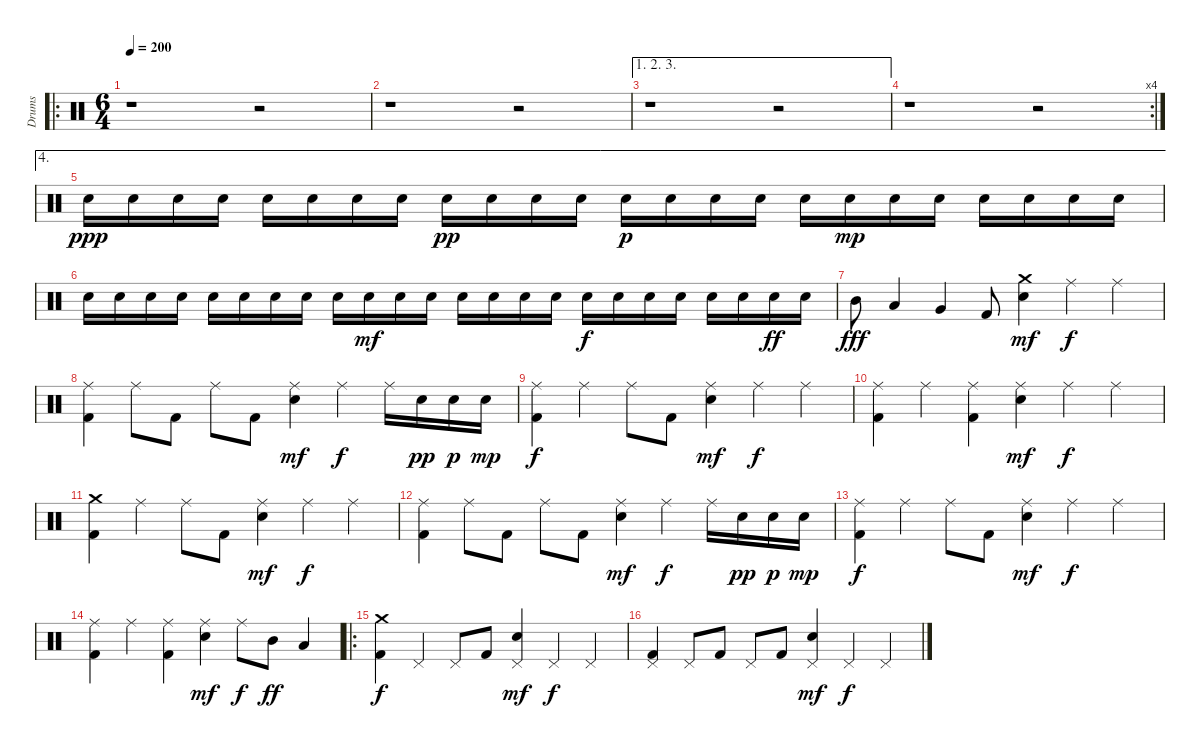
\track ("Drums" "Drums") {instrument percussion}
\staff {score}
\articulation defaults
\ro
\ts (6 4)
\tempo 200
\clef neutral
\ks c
r.1{dy ppp} r.2 |
r.1 r.2 |
\ae (1 2 3)
r.1 r.2 |
\rc 4
r.1 r.2 |
\ae 4 "Snare (hit) 2".16{volume 13} "Snare (hit) 2".16 "Snare (hit) 2".16 "Snare (hit) 2".16 "Snare (hit) 2".16 "Snare (hit) 2".16 "Snare (hit) 2".16 "Snare (hit) 2".16 "Snare (hit) 2".16{dy pp} "Snare (hit) 2".16 "Snare (hit) 2".16 "Snare (hit) 2".16 "Snare (hit) 2".16{dy p} "Snare (hit) 2".16 "Snare (hit) 2".16 "Snare (hit) 2".16 "Snare (hit) 2".16 "Snare (hit) 2".16{dy mp} "Snare (hit) 2".16 "Snare (hit) 2".16 "Snare (hit) 2".16 "Snare (hit) 2".16 "Snare (hit) 2".16 "Snare (hit) 2".16
|
"Snare (hit) 2".16 "Snare (hit) 2".16 "Snare (hit) 2".16 "Snare (hit) 2".16 "Snare (hit) 2".16 "Snare (hit) 2".16 "Snare (hit) 2".16 "Snare (hit) 2".16 "Snare (hit) 2".16 "Snare (hit) 2".16{dy mf} "Snare (hit) 2".16 "Snare (hit) 2".16 "Snare (hit) 2".16 "Snare (hit) 2".16 "Snare (hit) 2".16 "Snare (hit) 2".16 "Snare (hit) 2".16{dy f} "Snare (hit) 2".16 "Snare (hit) 2".16 "Snare (hit) 2".16 "Snare (hit) 2".16 "Snare (hit) 2".16 "Snare (hit) 2".16{dy ff} "Snare (hit) 2".16 |
"Mid Tom (hit)".8{dy fff volume 13} "Low Tom (hit)".4 "Very Low Tom (hit)".4 "Kick (hit) 2".8 ("Crash medium (hit)" "Snare (hit) 2").4{dy mf} "Ride (middle)".4{dy f} "Ride (middle)".4 |
("Ride (middle)" "Kick (hit) 2").4 "Ride (middle)".8 "Kick (hit) 2".8 "Ride (middle)".8 "Kick (hit) 2".8 ("Ride (middle)" "Snare (hit) 2").4{dy mf} "Ride (middle)".4{dy f} "Ride (middle)".16 "Snare (hit) 2".16{dy pp} "Snare (hit) 2".16{dy p} "Snare (hit) 2".16{dy mp} |
("Ride (middle)" "Kick (hit) 2").4{dy f} "Ride (middle)".4 "Ride (middle)".8 "Kick (hit) 2".8 ("Ride (middle)" "Snare (hit) 2").4{dy mf} "Ride (middle)".4{dy f} "Ride (middle)".4 |
("Ride (middle)" "Kick (hit) 2").4 "Ride (middle)".4 ("Ride (middle)" "Kick (hit) 2").4 ("Ride (middle)" "Snare (hit) 2").4{dy mf} "Ride (middle)".4{dy f} "Ride (middle)".4 |
("Crash medium (hit)" "Kick (hit) 2").4 "Ride (middle)".4 "Ride (middle)".8 "Kick (hit) 2".8 ("Ride (middle)" "Snare (hit) 2").4{dy mf} "Ride (middle)".4{dy f} "Ride (middle)".4 |
("Ride (middle)" "Kick (hit) 2").4 "Ride (middle)".8 "Kick (hit) 2".8 "Ride (middle)".8 "Kick (hit) 2".8 ("Ride (middle)" "Snare (hit) 2").4{dy mf} "Ride (middle)".4{dy f} "Ride (middle)".16 "Snare (hit) 2".16{dy pp} "Snare (hit) 2".16{dy p} "Snare (hit) 2".16{dy mp} |
("Ride (middle)" "Kick (hit) 2").4{dy f} "Ride (middle)".4 "Ride (middle)".8 "Kick (hit) 2".8 ("Ride (middle)" "Snare (hit) 2").4{dy mf} "Ride (middle)".4{dy f} "Ride (middle)".4 |
("Ride (middle)" "Kick (hit) 2").4 "Ride (middle)".4 ("Ride (middle)" "Kick (hit) 2").4 ("Ride (middle)" "Snare (hit) 2").4{dy mf} "Ride (middle)".8{dy f} "Mid Tom (hit)".8{dy ff} "Low Tom (hit)".4 |
\ro
("Crash medium (hit)" "Kick (hit) 2").4{dy f} "Pedal Hi-Hat (hit)".4 "Pedal Hi-Hat (hit)".8 "Kick (hit) 2".8 ("Pedal Hi-Hat (hit)" "Snare (hit) 2").4{dy mf} "Pedal Hi-Hat (hit)".4{dy f} "Pedal Hi-Hat (hit)".4 |
("Pedal Hi-Hat (hit)" "Kick (hit) 2").4 "Pedal Hi-Hat (hit)".8 "Kick (hit) 2".8 "Pedal Hi-Hat (hit)".8 "Kick (hit) 2".8 ("Pedal Hi-Hat (hit)" "Snare (hit) 2").4{dy mf} "Pedal Hi-Hat (hit)".4{dy f} "Pedal Hi-Hat (hit)".4
